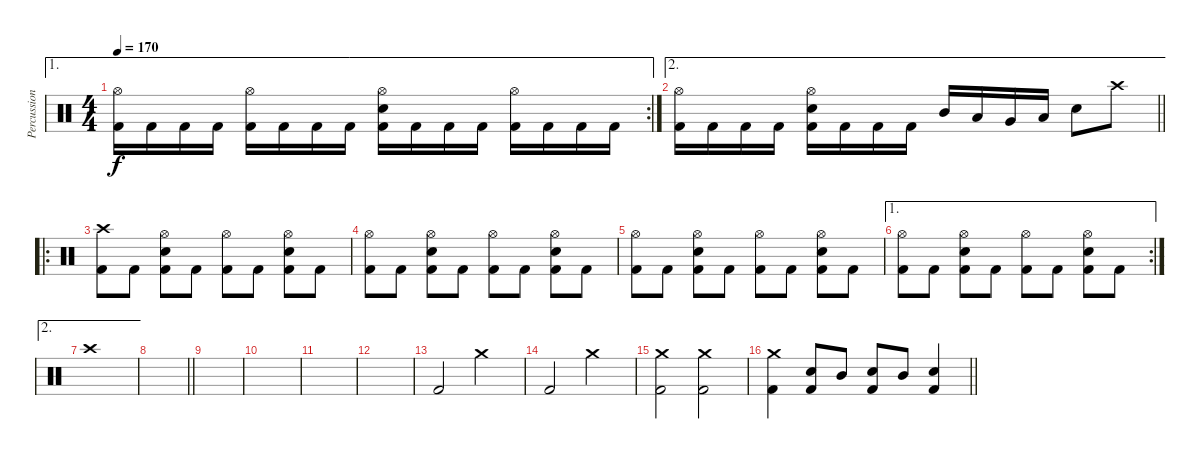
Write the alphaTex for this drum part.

\track ("Percussion" "Percussion") {instrument percussion}
\staff {score}
\articulation defaults
\ae 1
\rc 2
\ts (4 4)
\tempo 170
\clef neutral
\ks c
("Hi-Hat (open)" "Kick (hit) 2").16{dy f} "Kick (hit) 2".16 "Kick (hit) 2".16 "Kick (hit) 2".16 ("Hi-Hat (open)" "Kick (hit) 2").16 "Kick (hit) 2".16 "Kick (hit) 2".16 "Kick (hit) 2".16 ("Hi-Hat (open)" "Electric Snare (hit)" "Kick (hit) 2").16 "Kick (hit) 2".16 "Kick (hit) 2".16 "Kick (hit) 2".16 ("Hi-Hat (open)" "Kick (hit) 2").16 "Kick (hit) 2".16 "Kick (hit) 2".16 "Kick (hit) 2".16 |
\ae 2
\barLineRight lightlight
("Hi-Hat (open)" "Kick (hit) 2").16 "Kick (hit) 2".16 "Kick (hit) 2".16 "Kick (hit) 2".16 ("Hi-Hat (open)" "Electric Snare (hit)" "Kick (hit) 2").16 "Kick (hit) 2".16 "Kick (hit) 2".16 "Kick (hit) 2".16 "Mid Tom (hit)".16 "Low Tom (hit)".16 "Very Low Tom (hit)".16 "Low Floor Tom (hit)".16 "Electric Snare (hit)".8 "Crash high (hit)".8 |
\ro
\section ("" "")
("Crash high (hit)" "Kick (hit) 2").8 "Kick (hit) 2".8 ("Hi-Hat (open)" "Electric Snare (hit)" "Kick (hit) 2").8 "Kick (hit) 2".8 ("Hi-Hat (open)" "Kick (hit) 2").8 "Kick (hit) 2".8 ("Hi-Hat (open)" "Electric Snare (hit)" "Kick (hit) 2").8 "Kick (hit) 2".8 |
("Hi-Hat (open)" "Kick (hit) 2").8 "Kick (hit) 2".8 ("Hi-Hat (open)" "Electric Snare (hit)" "Kick (hit) 2").8 "Kick (hit) 2".8 ("Hi-Hat (open)" "Kick (hit) 2").8 "Kick (hit) 2".8 ("Hi-Hat (open)" "Electric Snare (hit)" "Kick (hit) 2").8 "Kick (hit) 2".8 |
("Hi-Hat (open)" "Kick (hit) 2").8 "Kick (hit) 2".8 ("Hi-Hat (open)" "Electric Snare (hit)" "Kick (hit) 2").8 "Kick (hit) 2".8 ("Hi-Hat (open)" "Kick (hit) 2").8 "Kick (hit) 2".8 ("Hi-Hat (open)" "Electric Snare (hit)" "Kick (hit) 2").8 "Kick (hit) 2".8 |
\ae 1
\rc 2
("Hi-Hat (open)" "Kick (hit) 2").8 "Kick (hit) 2".8 ("Hi-Hat (open)" "Electric Snare (hit)" "Kick (hit) 2").8 "Kick (hit) 2".8 ("Hi-Hat (open)" "Kick (hit) 2").8 "Kick (hit) 2".8 ("Hi-Hat (open)" "Electric Snare (hit)" "Kick (hit) 2").8 "Kick (hit) 2".8 |
\ae 2 "Crash high (hit)".1
|
\barLineRight lightlight
|
\section ("" "")
|
|
|
|
"Kick (hit) 2".2 "Crash medium (hit)".2 |
"Kick (hit) 2".2 "Crash medium (hit)".2 |
("Crash medium (hit)" "Kick (hit) 2").2 ("Crash medium (hit)" "Kick (hit) 2").2 |
\barLineRight lightlight
("Crash medium (hit)" "Kick (hit) 2").4 ("Electric Snare (hit)" "Kick (hit) 2").8 "Mid Tom (hit)".8 ("Electric Snare (hit)" "Kick (hit) 2").8 "Mid Tom (hit)".8 ("Electric Snare (hit)" "Kick (hit) 2").4
